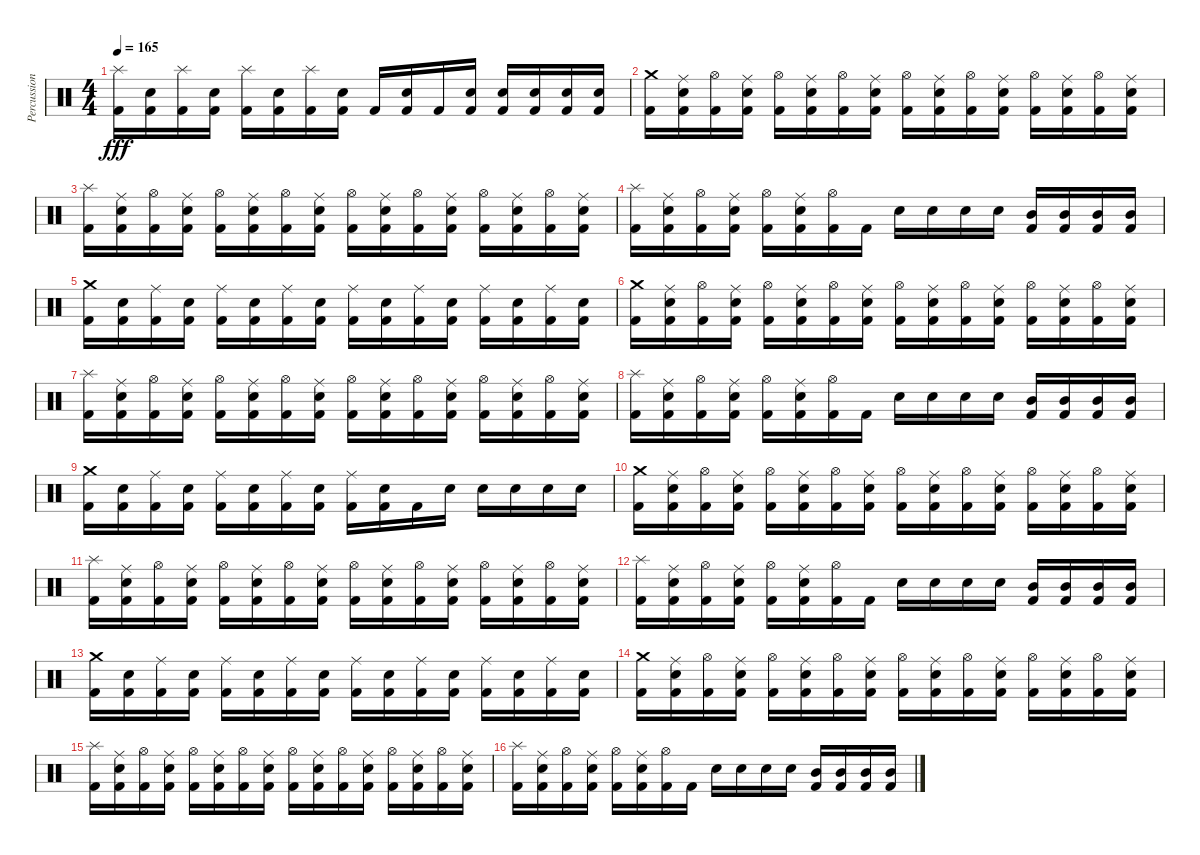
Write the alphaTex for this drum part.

\track ("Percussions" "Percussion") {instrument percussion}
\staff {score}
\articulation defaults
\ts (4 4)
\tempo 165
\clef neutral
\ks c
("Splash (hit)" "Kick (hit) 2").16{dy fff} ("Electric Snare (hit)" "Kick (hit) 2").16 ("Splash (hit)" "Kick (hit) 2").16 ("Electric Snare (hit)" "Kick (hit) 2").16 ("Splash (hit)" "Kick (hit) 2").16 ("Electric Snare (hit)" "Kick (hit) 2").16 ("Splash (hit)" "Kick (hit) 2").16 ("Electric Snare (hit)" "Kick (hit) 2").16 "Kick (hit) 2".16 ("Electric Snare (hit)" "Kick (hit) 2").16 "Kick (hit) 2".16 ("Electric Snare (hit)" "Kick (hit) 2").16 ("Electric Snare (hit)" "Kick (hit) 2").16 ("Electric Snare (hit)" "Kick (hit) 2").16 ("Electric Snare (hit)" "Kick (hit) 2").16 ("Electric Snare (hit)" "Kick (hit) 2").16 |
("Crash medium (hit)" "Kick (hit) 2").16 ("Ride (middle)" "Electric Snare (hit)" "Kick (hit) 2").16 ("Hi-Hat (open)" "Kick (hit) 2").16 ("Ride (middle)" "Electric Snare (hit)" "Kick (hit) 2").16 ("Hi-Hat (open)" "Kick (hit) 2").16 ("Ride (middle)" "Electric Snare (hit)" "Kick (hit) 2").16 ("Hi-Hat (open)" "Kick (hit) 2").16 ("Ride (middle)" "Electric Snare (hit)" "Kick (hit) 2").16 ("Hi-Hat (open)" "Kick (hit) 2").16 ("Ride (middle)" "Electric Snare (hit)" "Kick (hit) 2").16 ("Hi-Hat (open)" "Kick (hit) 2").16 ("Ride (middle)" "Electric Snare (hit)" "Kick (hit) 2").16 ("Hi-Hat (open)" "Kick (hit) 2").16 ("Ride (middle)" "Electric Snare (hit)" "Kick (hit) 2").16 ("Hi-Hat (open)" "Kick (hit) 2").16 ("Ride (middle)" "Electric Snare (hit)" "Kick (hit) 2").16 |
("Splash (hit)" "Kick (hit) 2").16 ("Ride (middle)" "Electric Snare (hit)" "Kick (hit) 2").16 ("Hi-Hat (open)" "Kick (hit) 2").16 ("Ride (middle)" "Electric Snare (hit)" "Kick (hit) 2").16 ("Hi-Hat (open)" "Kick (hit) 2").16 ("Ride (middle)" "Electric Snare (hit)" "Kick (hit) 2").16 ("Hi-Hat (open)" "Kick (hit) 2").16 ("Ride (middle)" "Electric Snare (hit)" "Kick (hit) 2").16 ("Hi-Hat (open)" "Kick (hit) 2").16 ("Ride (middle)" "Electric Snare (hit)" "Kick (hit) 2").16 ("Hi-Hat (open)" "Kick (hit) 2").16 ("Ride (middle)" "Electric Snare (hit)" "Kick (hit) 2").16 ("Hi-Hat (open)" "Kick (hit) 2").16 ("Ride (middle)" "Electric Snare (hit)" "Kick (hit) 2").16 ("Hi-Hat (open)" "Kick (hit) 2").16 ("Ride (middle)" "Electric Snare (hit)" "Kick (hit) 2").16 |
("Splash (hit)" "Kick (hit) 2").16 ("Ride (middle)" "Electric Snare (hit)" "Kick (hit) 2").16 ("Hi-Hat (open)" "Kick (hit) 2").16 ("Ride (middle)" "Electric Snare (hit)" "Kick (hit) 2").16 ("Hi-Hat (open)" "Kick (hit) 2").16 ("Ride (middle)" "Electric Snare (hit)" "Kick (hit) 2").16 ("Hi-Hat (open)" "Kick (hit) 2").16 "Kick (hit) 2".16 "Electric Snare (hit)".16 "Electric Snare (hit)".16 "Electric Snare (hit)".16 "Electric Snare (hit)".16 ("Mid Tom (hit)" "Kick (hit) 2").16 ("Mid Tom (hit)" "Kick (hit) 2").16 ("Mid Tom (hit)" "Kick (hit) 2").16 ("Mid Tom (hit)" "Kick (hit) 2").16 |
("Crash medium (hit)" "Kick (hit) 2").16 ("Electric Snare (hit)" "Kick (hit) 2").16 ("Ride (middle)" "Kick (hit) 2").16 ("Electric Snare (hit)" "Kick (hit) 2").16 ("Ride (middle)" "Kick (hit) 2").16 ("Electric Snare (hit)" "Kick (hit) 2").16 ("Ride (middle)" "Kick (hit) 2").16 ("Electric Snare (hit)" "Kick (hit) 2").16 ("Ride (middle)" "Kick (hit) 2").16 ("Electric Snare (hit)" "Kick (hit) 2").16 ("Ride (middle)" "Kick (hit) 2").16 ("Electric Snare (hit)" "Kick (hit) 2").16 ("Ride (middle)" "Kick (hit) 2").16 ("Electric Snare (hit)" "Kick (hit) 2").16 ("Ride (middle)" "Kick (hit) 2").16 ("Electric Snare (hit)" "Kick (hit) 2").16 |
("Crash medium (hit)" "Kick (hit) 2").16 ("Ride (middle)" "Electric Snare (hit)" "Kick (hit) 2").16 ("Hi-Hat (open)" "Kick (hit) 2").16 ("Ride (middle)" "Electric Snare (hit)" "Kick (hit) 2").16 ("Hi-Hat (open)" "Kick (hit) 2").16 ("Ride (middle)" "Electric Snare (hit)" "Kick (hit) 2").16 ("Hi-Hat (open)" "Kick (hit) 2").16 ("Ride (middle)" "Electric Snare (hit)" "Kick (hit) 2").16 ("Hi-Hat (open)" "Kick (hit) 2").16 ("Ride (middle)" "Electric Snare (hit)" "Kick (hit) 2").16 ("Hi-Hat (open)" "Kick (hit) 2").16 ("Ride (middle)" "Electric Snare (hit)" "Kick (hit) 2").16 ("Hi-Hat (open)" "Kick (hit) 2").16 ("Ride (middle)" "Electric Snare (hit)" "Kick (hit) 2").16 ("Hi-Hat (open)" "Kick (hit) 2").16 ("Ride (middle)" "Electric Snare (hit)" "Kick (hit) 2").16 |
("Splash (hit)" "Kick (hit) 2").16 ("Ride (middle)" "Electric Snare (hit)" "Kick (hit) 2").16 ("Hi-Hat (open)" "Kick (hit) 2").16 ("Ride (middle)" "Electric Snare (hit)" "Kick (hit) 2").16 ("Hi-Hat (open)" "Kick (hit) 2").16 ("Ride (middle)" "Electric Snare (hit)" "Kick (hit) 2").16 ("Hi-Hat (open)" "Kick (hit) 2").16 ("Ride (middle)" "Electric Snare (hit)" "Kick (hit) 2").16 ("Hi-Hat (open)" "Kick (hit) 2").16 ("Ride (middle)" "Electric Snare (hit)" "Kick (hit) 2").16 ("Hi-Hat (open)" "Kick (hit) 2").16 ("Ride (middle)" "Electric Snare (hit)" "Kick (hit) 2").16 ("Hi-Hat (open)" "Kick (hit) 2").16 ("Ride (middle)" "Electric Snare (hit)" "Kick (hit) 2").16 ("Hi-Hat (open)" "Kick (hit) 2").16 ("Ride (middle)" "Electric Snare (hit)" "Kick (hit) 2").16 |
("Splash (hit)" "Kick (hit) 2").16 ("Ride (middle)" "Electric Snare (hit)" "Kick (hit) 2").16 ("Hi-Hat (open)" "Kick (hit) 2").16 ("Ride (middle)" "Electric Snare (hit)" "Kick (hit) 2").16 ("Hi-Hat (open)" "Kick (hit) 2").16 ("Ride (middle)" "Electric Snare (hit)" "Kick (hit) 2").16 ("Hi-Hat (open)" "Kick (hit) 2").16 "Kick (hit) 2".16 "Electric Snare (hit)".16 "Electric Snare (hit)".16 "Electric Snare (hit)".16 "Electric Snare (hit)".16 ("Mid Tom (hit)" "Kick (hit) 2").16 ("Mid Tom (hit)" "Kick (hit) 2").16 ("Mid Tom (hit)" "Kick (hit) 2").16 ("Mid Tom (hit)" "Kick (hit) 2").16 |
("Crash medium (hit)" "Kick (hit) 2").16 ("Electric Snare (hit)" "Kick (hit) 2").16 ("Ride (middle)" "Kick (hit) 2").16 ("Electric Snare (hit)" "Kick (hit) 2").16 ("Ride (middle)" "Kick (hit) 2").16 ("Electric Snare (hit)" "Kick (hit) 2").16 ("Ride (middle)" "Kick (hit) 2").16 ("Electric Snare (hit)" "Kick (hit) 2").16 ("Ride (middle)" "Kick (hit) 2").16 ("Electric Snare (hit)" "Kick (hit) 2").16 "Kick (hit) 2".16 "Electric Snare (hit)".16 "Electric Snare (hit)".16 "Electric Snare (hit)".16 "Electric Snare (hit)".16 "Electric Snare (hit)".16 |
("Crash medium (hit)" "Kick (hit) 2").16 ("Ride (middle)" "Electric Snare (hit)" "Kick (hit) 2").16 ("Hi-Hat (open)" "Kick (hit) 2").16 ("Ride (middle)" "Electric Snare (hit)" "Kick (hit) 2").16 ("Hi-Hat (open)" "Kick (hit) 2").16 ("Ride (middle)" "Electric Snare (hit)" "Kick (hit) 2").16 ("Hi-Hat (open)" "Kick (hit) 2").16 ("Ride (middle)" "Electric Snare (hit)" "Kick (hit) 2").16 ("Hi-Hat (open)" "Kick (hit) 2").16 ("Ride (middle)" "Electric Snare (hit)" "Kick (hit) 2").16 ("Hi-Hat (open)" "Kick (hit) 2").16 ("Ride (middle)" "Electric Snare (hit)" "Kick (hit) 2").16 ("Hi-Hat (open)" "Kick (hit) 2").16 ("Ride (middle)" "Electric Snare (hit)" "Kick (hit) 2").16 ("Hi-Hat (open)" "Kick (hit) 2").16 ("Ride (middle)" "Electric Snare (hit)" "Kick (hit) 2").16 |
("Splash (hit)" "Kick (hit) 2").16 ("Ride (middle)" "Electric Snare (hit)" "Kick (hit) 2").16 ("Hi-Hat (open)" "Kick (hit) 2").16 ("Ride (middle)" "Electric Snare (hit)" "Kick (hit) 2").16 ("Hi-Hat (open)" "Kick (hit) 2").16 ("Ride (middle)" "Electric Snare (hit)" "Kick (hit) 2").16 ("Hi-Hat (open)" "Kick (hit) 2").16 ("Ride (middle)" "Electric Snare (hit)" "Kick (hit) 2").16 ("Hi-Hat (open)" "Kick (hit) 2").16 ("Ride (middle)" "Electric Snare (hit)" "Kick (hit) 2").16 ("Hi-Hat (open)" "Kick (hit) 2").16 ("Ride (middle)" "Electric Snare (hit)" "Kick (hit) 2").16 ("Hi-Hat (open)" "Kick (hit) 2").16 ("Ride (middle)" "Electric Snare (hit)" "Kick (hit) 2").16 ("Hi-Hat (open)" "Kick (hit) 2").16 ("Ride (middle)" "Electric Snare (hit)" "Kick (hit) 2").16 |
("Splash (hit)" "Kick (hit) 2").16 ("Ride (middle)" "Electric Snare (hit)" "Kick (hit) 2").16 ("Hi-Hat (open)" "Kick (hit) 2").16 ("Ride (middle)" "Electric Snare (hit)" "Kick (hit) 2").16 ("Hi-Hat (open)" "Kick (hit) 2").16 ("Ride (middle)" "Electric Snare (hit)" "Kick (hit) 2").16 ("Hi-Hat (open)" "Kick (hit) 2").16 "Kick (hit) 2".16 "Electric Snare (hit)".16 "Electric Snare (hit)".16 "Electric Snare (hit)".16 "Electric Snare (hit)".16 ("Mid Tom (hit)" "Kick (hit) 2").16 ("Mid Tom (hit)" "Kick (hit) 2").16 ("Mid Tom (hit)" "Kick (hit) 2").16 ("Mid Tom (hit)" "Kick (hit) 2").16 |
("Crash medium (hit)" "Kick (hit) 2").16 ("Electric Snare (hit)" "Kick (hit) 2").16 ("Ride (middle)" "Kick (hit) 2").16 ("Electric Snare (hit)" "Kick (hit) 2").16 ("Ride (middle)" "Kick (hit) 2").16 ("Electric Snare (hit)" "Kick (hit) 2").16 ("Ride (middle)" "Kick (hit) 2").16 ("Electric Snare (hit)" "Kick (hit) 2").16 ("Ride (middle)" "Kick (hit) 2").16 ("Electric Snare (hit)" "Kick (hit) 2").16 ("Ride (middle)" "Kick (hit) 2").16 ("Electric Snare (hit)" "Kick (hit) 2").16 ("Ride (middle)" "Kick (hit) 2").16 ("Electric Snare (hit)" "Kick (hit) 2").16 ("Ride (middle)" "Kick (hit) 2").16 ("Electric Snare (hit)" "Kick (hit) 2").16 |
("Crash medium (hit)" "Kick (hit) 2").16 ("Ride (middle)" "Electric Snare (hit)" "Kick (hit) 2").16 ("Hi-Hat (open)" "Kick (hit) 2").16 ("Ride (middle)" "Electric Snare (hit)" "Kick (hit) 2").16 ("Hi-Hat (open)" "Kick (hit) 2").16 ("Ride (middle)" "Electric Snare (hit)" "Kick (hit) 2").16 ("Hi-Hat (open)" "Kick (hit) 2").16 ("Ride (middle)" "Electric Snare (hit)" "Kick (hit) 2").16 ("Hi-Hat (open)" "Kick (hit) 2").16 ("Ride (middle)" "Electric Snare (hit)" "Kick (hit) 2").16 ("Hi-Hat (open)" "Kick (hit) 2").16 ("Ride (middle)" "Electric Snare (hit)" "Kick (hit) 2").16 ("Hi-Hat (open)" "Kick (hit) 2").16 ("Ride (middle)" "Electric Snare (hit)" "Kick (hit) 2").16 ("Hi-Hat (open)" "Kick (hit) 2").16 ("Ride (middle)" "Electric Snare (hit)" "Kick (hit) 2").16 |
("Splash (hit)" "Kick (hit) 2").16 ("Ride (middle)" "Electric Snare (hit)" "Kick (hit) 2").16 ("Hi-Hat (open)" "Kick (hit) 2").16 ("Ride (middle)" "Electric Snare (hit)" "Kick (hit) 2").16 ("Hi-Hat (open)" "Kick (hit) 2").16 ("Ride (middle)" "Electric Snare (hit)" "Kick (hit) 2").16 ("Hi-Hat (open)" "Kick (hit) 2").16 ("Ride (middle)" "Electric Snare (hit)" "Kick (hit) 2").16 ("Hi-Hat (open)" "Kick (hit) 2").16 ("Ride (middle)" "Electric Snare (hit)" "Kick (hit) 2").16 ("Hi-Hat (open)" "Kick (hit) 2").16 ("Ride (middle)" "Electric Snare (hit)" "Kick (hit) 2").16 ("Hi-Hat (open)" "Kick (hit) 2").16 ("Ride (middle)" "Electric Snare (hit)" "Kick (hit) 2").16 ("Hi-Hat (open)" "Kick (hit) 2").16 ("Ride (middle)" "Electric Snare (hit)" "Kick (hit) 2").16 |
("Splash (hit)" "Kick (hit) 2").16 ("Ride (middle)" "Electric Snare (hit)" "Kick (hit) 2").16 ("Hi-Hat (open)" "Kick (hit) 2").16 ("Ride (middle)" "Electric Snare (hit)" "Kick (hit) 2").16 ("Hi-Hat (open)" "Kick (hit) 2").16 ("Ride (middle)" "Electric Snare (hit)" "Kick (hit) 2").16 ("Hi-Hat (open)" "Kick (hit) 2").16 "Kick (hit) 2".16 "Electric Snare (hit)".16 "Electric Snare (hit)".16 "Electric Snare (hit)".16 "Electric Snare (hit)".16 ("Mid Tom (hit)" "Kick (hit) 2").16 ("Mid Tom (hit)" "Kick (hit) 2").16 ("Mid Tom (hit)" "Kick (hit) 2").16 ("Mid Tom (hit)" "Kick (hit) 2").16
